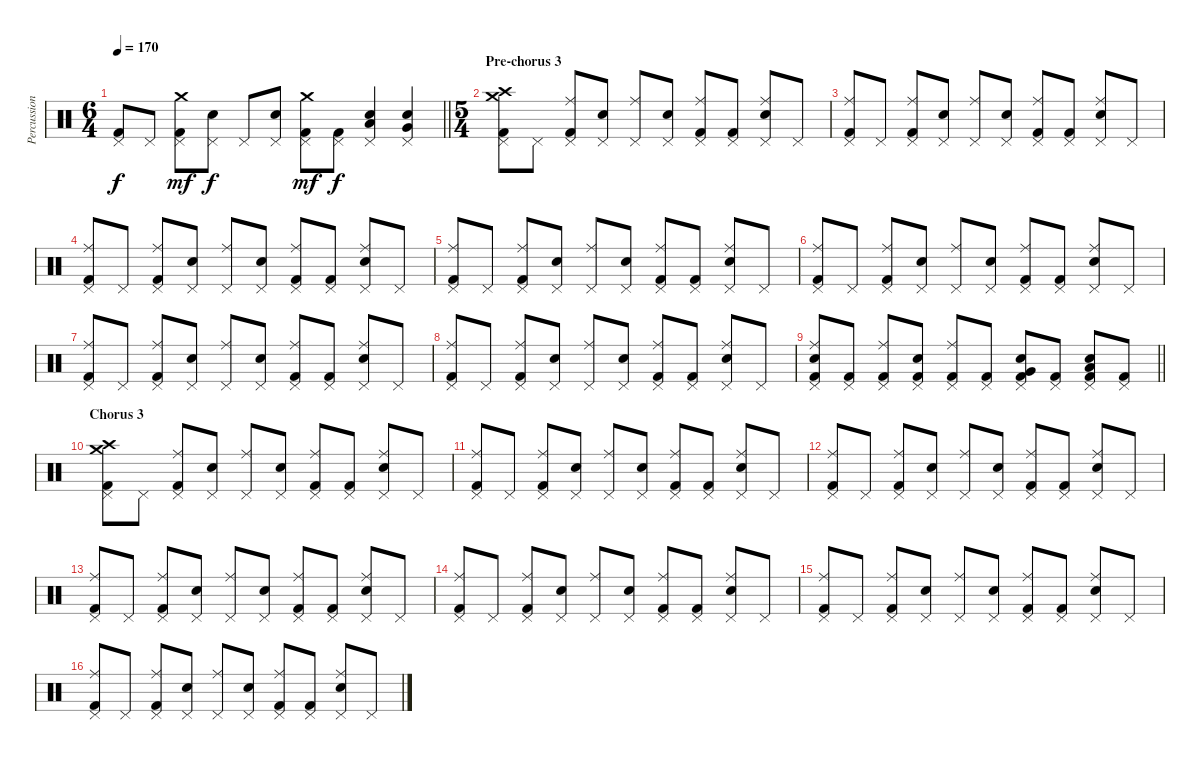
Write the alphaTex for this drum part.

\track ("Percussion" "Percussion") {instrument percussion}
\staff {score}
\articulation defaults
\ts (6 4)
\tempo 170
\clef neutral
\barLineRight lightlight
\ks c
("Pedal Hi-Hat (hit)" "Kick (hit) 2").8{dy f} "Pedal Hi-Hat (hit)".8 ("Crash medium (hit)" "Pedal Hi-Hat (hit)" "Kick (hit) 2").8{dy mf} ("Electric Snare (hit)" "Pedal Hi-Hat (hit)").8{dy f} "Pedal Hi-Hat (hit)".8 ("Electric Snare (hit)" "Pedal Hi-Hat (hit)").8 ("Crash medium (hit)" "Pedal Hi-Hat (hit)" "Kick (hit) 2").8{dy mf} ("Pedal Hi-Hat (hit)" "Kick (hit) 2").8{dy f} ("Electric Snare (hit)" "Low Tom (hit)" "Pedal Hi-Hat (hit)").4 ("Electric Snare (hit)" "Very Low Tom (hit)" "Pedal Hi-Hat (hit)").4 |
\ts (5 4)
\section ("" "Pre-chorus 3")
("Crash medium (hit)" "Crash high (hit)" "Pedal Hi-Hat (hit)" "Kick (hit) 2").8 "Pedal Hi-Hat (hit)".8 ("Ride (middle)" "Pedal Hi-Hat (hit)" "Kick (hit) 2").8 ("Electric Snare (hit)" "Pedal Hi-Hat (hit)").8 ("Ride (middle)" "Pedal Hi-Hat (hit)").8 ("Electric Snare (hit)" "Pedal Hi-Hat (hit)").8 ("Ride (middle)" "Pedal Hi-Hat (hit)" "Kick (hit) 2").8 ("Pedal Hi-Hat (hit)" "Kick (hit) 2").8 ("Ride (middle)" "Electric Snare (hit)" "Pedal Hi-Hat (hit)").8 "Pedal Hi-Hat (hit)".8 |
("Ride (middle)" "Pedal Hi-Hat (hit)" "Kick (hit) 2").8 "Pedal Hi-Hat (hit)".8 ("Ride (middle)" "Pedal Hi-Hat (hit)" "Kick (hit) 2").8 ("Electric Snare (hit)" "Pedal Hi-Hat (hit)").8 ("Ride (middle)" "Pedal Hi-Hat (hit)").8 ("Electric Snare (hit)" "Pedal Hi-Hat (hit)").8 ("Ride (middle)" "Pedal Hi-Hat (hit)" "Kick (hit) 2").8 ("Pedal Hi-Hat (hit)" "Kick (hit) 2").8 ("Ride (middle)" "Electric Snare (hit)" "Pedal Hi-Hat (hit)").8 "Pedal Hi-Hat (hit)".8 |
("Ride (middle)" "Pedal Hi-Hat (hit)" "Kick (hit) 2").8 "Pedal Hi-Hat (hit)".8 ("Ride (middle)" "Pedal Hi-Hat (hit)" "Kick (hit) 2").8 ("Electric Snare (hit)" "Pedal Hi-Hat (hit)").8 ("Ride (middle)" "Pedal Hi-Hat (hit)").8 ("Electric Snare (hit)" "Pedal Hi-Hat (hit)").8 ("Ride (middle)" "Pedal Hi-Hat (hit)" "Kick (hit) 2").8 ("Pedal Hi-Hat (hit)" "Kick (hit) 2").8 ("Ride (middle)" "Electric Snare (hit)" "Pedal Hi-Hat (hit)").8 "Pedal Hi-Hat (hit)".8 |
("Ride (middle)" "Pedal Hi-Hat (hit)" "Kick (hit) 2").8 "Pedal Hi-Hat (hit)".8 ("Ride (middle)" "Pedal Hi-Hat (hit)" "Kick (hit) 2").8 ("Electric Snare (hit)" "Pedal Hi-Hat (hit)").8 ("Ride (middle)" "Pedal Hi-Hat (hit)").8 ("Electric Snare (hit)" "Pedal Hi-Hat (hit)").8 ("Ride (middle)" "Pedal Hi-Hat (hit)" "Kick (hit) 2").8 ("Pedal Hi-Hat (hit)" "Kick (hit) 2").8 ("Ride (middle)" "Electric Snare (hit)" "Pedal Hi-Hat (hit)").8 "Pedal Hi-Hat (hit)".8 |
("Ride (middle)" "Pedal Hi-Hat (hit)" "Kick (hit) 2").8 "Pedal Hi-Hat (hit)".8 ("Ride (middle)" "Pedal Hi-Hat (hit)" "Kick (hit) 2").8 ("Electric Snare (hit)" "Pedal Hi-Hat (hit)").8 ("Ride (middle)" "Pedal Hi-Hat (hit)").8 ("Electric Snare (hit)" "Pedal Hi-Hat (hit)").8 ("Ride (middle)" "Pedal Hi-Hat (hit)" "Kick (hit) 2").8 ("Pedal Hi-Hat (hit)" "Kick (hit) 2").8 ("Ride (middle)" "Electric Snare (hit)" "Pedal Hi-Hat (hit)").8 "Pedal Hi-Hat (hit)".8 |
("Ride (middle)" "Pedal Hi-Hat (hit)" "Kick (hit) 2").8 "Pedal Hi-Hat (hit)".8 ("Ride (middle)" "Pedal Hi-Hat (hit)" "Kick (hit) 2").8 ("Electric Snare (hit)" "Pedal Hi-Hat (hit)").8 ("Ride (middle)" "Pedal Hi-Hat (hit)").8 ("Electric Snare (hit)" "Pedal Hi-Hat (hit)").8 ("Ride (middle)" "Pedal Hi-Hat (hit)" "Kick (hit) 2").8 ("Pedal Hi-Hat (hit)" "Kick (hit) 2").8 ("Ride (middle)" "Electric Snare (hit)" "Pedal Hi-Hat (hit)").8 "Pedal Hi-Hat (hit)".8 |
("Ride (middle)" "Pedal Hi-Hat (hit)" "Kick (hit) 2").8 "Pedal Hi-Hat (hit)".8 ("Ride (middle)" "Pedal Hi-Hat (hit)" "Kick (hit) 2").8 ("Electric Snare (hit)" "Pedal Hi-Hat (hit)").8 ("Ride (middle)" "Pedal Hi-Hat (hit)").8 ("Electric Snare (hit)" "Pedal Hi-Hat (hit)").8 ("Ride (middle)" "Pedal Hi-Hat (hit)" "Kick (hit) 2").8 ("Pedal Hi-Hat (hit)" "Kick (hit) 2").8 ("Ride (middle)" "Electric Snare (hit)" "Pedal Hi-Hat (hit)").8 "Pedal Hi-Hat (hit)".8 |
\barLineRight lightlight
("Ride (middle)" "Electric Snare (hit)" "Pedal Hi-Hat (hit)" "Kick (hit) 2").8 ("Pedal Hi-Hat (hit)" "Kick (hit) 2").8 ("Ride (middle)" "Pedal Hi-Hat (hit)" "Kick (hit) 2").8 ("Electric Snare (hit)" "Pedal Hi-Hat (hit)" "Kick (hit) 2").8 ("Ride (middle)" "Pedal Hi-Hat (hit)" "Kick (hit) 2").8 ("Pedal Hi-Hat (hit)" "Kick (hit) 2").8 ("Electric Snare (hit)" "Very Low Tom (hit)" "Pedal Hi-Hat (hit)" "Kick (hit) 2").8 ("Pedal Hi-Hat (hit)" "Kick (hit) 2").8 ("Electric Snare (hit)" "Low Floor Tom (hit)" "Pedal Hi-Hat (hit)" "Kick (hit) 2").8 ("Pedal Hi-Hat (hit)" "Kick (hit) 2").8 |
\section ("" "Chorus 3")
("Crash medium (hit)" "Crash high (hit)" "Pedal Hi-Hat (hit)" "Kick (hit) 2").8 "Pedal Hi-Hat (hit)".8 ("Ride (middle)" "Pedal Hi-Hat (hit)" "Kick (hit) 2").8 ("Electric Snare (hit)" "Pedal Hi-Hat (hit)").8 ("Ride (middle)" "Pedal Hi-Hat (hit)").8 ("Electric Snare (hit)" "Pedal Hi-Hat (hit)").8 ("Ride (middle)" "Pedal Hi-Hat (hit)" "Kick (hit) 2").8 ("Pedal Hi-Hat (hit)" "Kick (hit) 2").8 ("Ride (middle)" "Electric Snare (hit)" "Pedal Hi-Hat (hit)").8 "Pedal Hi-Hat (hit)".8 |
("Ride (middle)" "Pedal Hi-Hat (hit)" "Kick (hit) 2").8 "Pedal Hi-Hat (hit)".8 ("Ride (middle)" "Pedal Hi-Hat (hit)" "Kick (hit) 2").8 ("Electric Snare (hit)" "Pedal Hi-Hat (hit)").8 ("Ride (middle)" "Pedal Hi-Hat (hit)").8 ("Electric Snare (hit)" "Pedal Hi-Hat (hit)").8 ("Ride (middle)" "Pedal Hi-Hat (hit)" "Kick (hit) 2").8 ("Pedal Hi-Hat (hit)" "Kick (hit) 2").8 ("Ride (middle)" "Electric Snare (hit)" "Pedal Hi-Hat (hit)").8 "Pedal Hi-Hat (hit)".8 |
("Ride (middle)" "Pedal Hi-Hat (hit)" "Kick (hit) 2").8 "Pedal Hi-Hat (hit)".8 ("Ride (middle)" "Pedal Hi-Hat (hit)" "Kick (hit) 2").8 ("Electric Snare (hit)" "Pedal Hi-Hat (hit)").8 ("Ride (middle)" "Pedal Hi-Hat (hit)").8 ("Electric Snare (hit)" "Pedal Hi-Hat (hit)").8 ("Ride (middle)" "Pedal Hi-Hat (hit)" "Kick (hit) 2").8 ("Pedal Hi-Hat (hit)" "Kick (hit) 2").8 ("Ride (middle)" "Electric Snare (hit)" "Pedal Hi-Hat (hit)").8 "Pedal Hi-Hat (hit)".8 |
("Ride (middle)" "Pedal Hi-Hat (hit)" "Kick (hit) 2").8 "Pedal Hi-Hat (hit)".8 ("Ride (middle)" "Pedal Hi-Hat (hit)" "Kick (hit) 2").8 ("Electric Snare (hit)" "Pedal Hi-Hat (hit)").8 ("Ride (middle)" "Pedal Hi-Hat (hit)").8 ("Electric Snare (hit)" "Pedal Hi-Hat (hit)").8 ("Ride (middle)" "Pedal Hi-Hat (hit)" "Kick (hit) 2").8 ("Pedal Hi-Hat (hit)" "Kick (hit) 2").8 ("Ride (middle)" "Electric Snare (hit)" "Pedal Hi-Hat (hit)").8 "Pedal Hi-Hat (hit)".8 |
("Ride (middle)" "Pedal Hi-Hat (hit)" "Kick (hit) 2").8 "Pedal Hi-Hat (hit)".8 ("Ride (middle)" "Pedal Hi-Hat (hit)" "Kick (hit) 2").8 ("Electric Snare (hit)" "Pedal Hi-Hat (hit)").8 ("Ride (middle)" "Pedal Hi-Hat (hit)").8 ("Electric Snare (hit)" "Pedal Hi-Hat (hit)").8 ("Ride (middle)" "Pedal Hi-Hat (hit)" "Kick (hit) 2").8 ("Pedal Hi-Hat (hit)" "Kick (hit) 2").8 ("Ride (middle)" "Electric Snare (hit)" "Pedal Hi-Hat (hit)").8 "Pedal Hi-Hat (hit)".8 |
("Ride (middle)" "Pedal Hi-Hat (hit)" "Kick (hit) 2").8 "Pedal Hi-Hat (hit)".8 ("Ride (middle)" "Pedal Hi-Hat (hit)" "Kick (hit) 2").8 ("Electric Snare (hit)" "Pedal Hi-Hat (hit)").8 ("Ride (middle)" "Pedal Hi-Hat (hit)").8 ("Electric Snare (hit)" "Pedal Hi-Hat (hit)").8 ("Ride (middle)" "Pedal Hi-Hat (hit)" "Kick (hit) 2").8 ("Pedal Hi-Hat (hit)" "Kick (hit) 2").8 ("Ride (middle)" "Electric Snare (hit)" "Pedal Hi-Hat (hit)").8 "Pedal Hi-Hat (hit)".8 |
("Ride (middle)" "Pedal Hi-Hat (hit)" "Kick (hit) 2").8 "Pedal Hi-Hat (hit)".8 ("Ride (middle)" "Pedal Hi-Hat (hit)" "Kick (hit) 2").8 ("Electric Snare (hit)" "Pedal Hi-Hat (hit)").8 ("Ride (middle)" "Pedal Hi-Hat (hit)").8 ("Electric Snare (hit)" "Pedal Hi-Hat (hit)").8 ("Ride (middle)" "Pedal Hi-Hat (hit)" "Kick (hit) 2").8 ("Pedal Hi-Hat (hit)" "Kick (hit) 2").8 ("Ride (middle)" "Electric Snare (hit)" "Pedal Hi-Hat (hit)").8 "Pedal Hi-Hat (hit)".8
